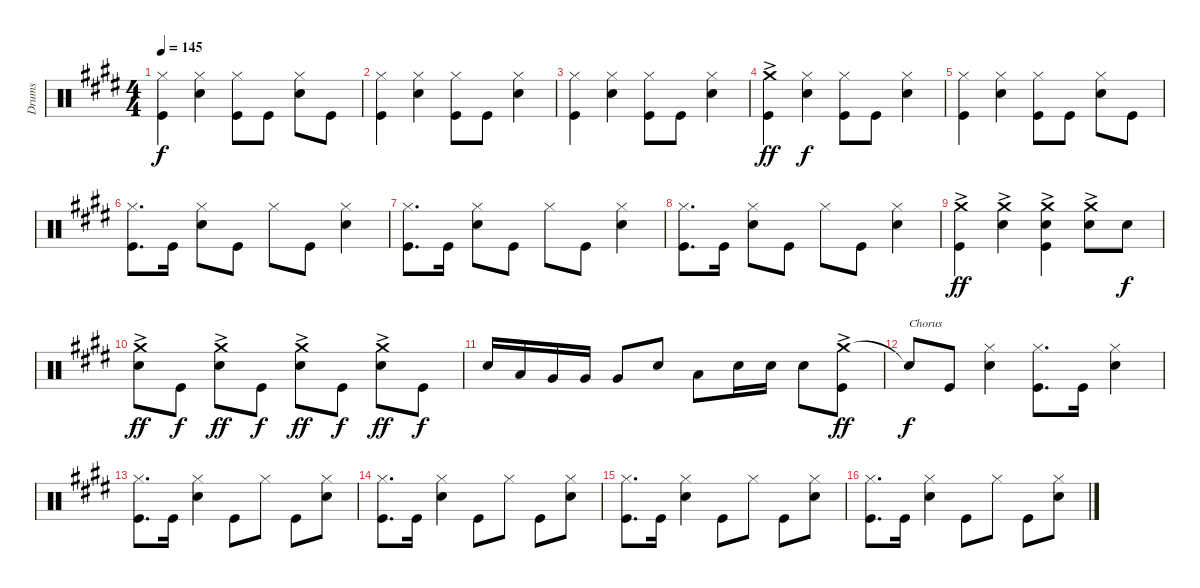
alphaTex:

\track ("Drums" "Drums") {instrument percussion}
\staff {score}
\articulation defaults
\ts (4 4)
\tempo 145
\clef neutral
\ks e
("Hi-Hat (closed)" "Kick (hit)").4{dy f} ("Hi-Hat (closed)" "Snare (hit) 2").4 ("Hi-Hat (closed)" "Kick (hit)").8 "Kick (hit)".8 ("Hi-Hat (closed)" "Snare (hit) 2").8 "Kick (hit)".8 |
("Hi-Hat (closed)" "Kick (hit)").4 ("Hi-Hat (closed)" "Snare (hit) 2").4 ("Hi-Hat (closed)" "Kick (hit)").8 "Kick (hit)".8 ("Hi-Hat (closed)" "Snare (hit) 2").4 |
("Hi-Hat (closed)" "Kick (hit)").4 ("Hi-Hat (closed)" "Snare (hit) 2").4 ("Hi-Hat (closed)" "Kick (hit)").8 "Kick (hit)".8 ("Hi-Hat (closed)" "Snare (hit) 2").4 |
("Crash medium (hit)"{ac} "Kick (hit)").4{dy ff} ("Hi-Hat (closed)" "Snare (hit) 2").4{dy f} ("Hi-Hat (closed)" "Kick (hit)").8 "Kick (hit)".8 ("Hi-Hat (closed)" "Snare (hit) 2").4 |
("Hi-Hat (closed)" "Kick (hit)").4 ("Hi-Hat (closed)" "Snare (hit) 2").4 ("Hi-Hat (closed)" "Kick (hit)").8 "Kick (hit)".8 ("Hi-Hat (closed)" "Snare (hit) 2").8 "Kick (hit)".8 |
("Hi-Hat (closed)" "Kick (hit)").8{d} "Kick (hit)".16 ("Hi-Hat (closed)" "Snare (hit) 2").8 "Kick (hit)".8 "Hi-Hat (closed)".8 "Kick (hit)".8 ("Hi-Hat (closed)" "Snare (hit) 2").4 |
("Hi-Hat (closed)" "Kick (hit)").8{d} "Kick (hit)".16 ("Hi-Hat (closed)" "Snare (hit) 2").8 "Kick (hit)".8 "Hi-Hat (closed)".8 "Kick (hit)".8 ("Hi-Hat (closed)" "Snare (hit) 2").4 |
("Hi-Hat (closed)" "Kick (hit)").8{d} "Kick (hit)".16 ("Hi-Hat (closed)" "Snare (hit) 2").8 "Kick (hit)".8 "Hi-Hat (closed)".8 "Kick (hit)".8 ("Hi-Hat (closed)" "Snare (hit) 2").4 |
("Crash medium (hit)"{ac} "Kick (hit)").4{dy ff} ("Crash medium (hit)"{ac} "Snare (hit) 2").4 ("Crash medium (hit)"{ac} "Snare (hit) 2" "Kick (hit)").4 ("Crash medium (hit)"{ac} "Snare (hit) 2").8 "Snare (hit) 2".8{dy f} |
("Crash medium (hit)"{ac} "Snare (hit) 2").8{dy ff} "Kick (hit)".8{dy f} ("Crash medium (hit)"{ac} "Snare (hit) 2").8{dy ff} "Kick (hit)".8{dy f} ("Crash medium (hit)"{ac} "Snare (hit) 2").8{dy ff} "Kick (hit)".8{dy f} ("Crash medium (hit)"{ac} "Snare (hit) 2").8{dy ff} "Kick (hit)".8{dy f} |
"Snare (hit) 2".16 "Low Tom (hit)".16 "Very Low Tom (hit)".16 "Very Low Tom (hit)".16 "Very Low Tom (hit)".8 "Snare (hit) 2".8 "Low Tom (hit)".8 "Snare (hit) 2".16 "Snare (hit) 2".16 "Snare (hit) 2".8 ("Crash medium (hit)"{ac} "Kick (hit)").8{dy ff} |
"Snare (hit)"{t}.8{txt "Chorus" dy f} "Kick (hit)".8 ("Hi-Hat (closed)" "Snare (hit) 2").4 ("Hi-Hat (closed)" "Kick (hit)").8{d} "Kick (hit)".16 ("Hi-Hat (closed)" "Snare (hit) 2").4 |
("Hi-Hat (closed)" "Kick (hit)").8{d} "Kick (hit)".16 ("Hi-Hat (closed)" "Snare (hit) 2").4 "Kick (hit)".8 "Hi-Hat (closed)".8 "Kick (hit)".8 ("Hi-Hat (closed)" "Snare (hit) 2").8 |
("Hi-Hat (closed)" "Kick (hit)").8{d} "Kick (hit)".16 ("Hi-Hat (closed)" "Snare (hit) 2").4 "Kick (hit)".8 "Hi-Hat (closed)".8 "Kick (hit)".8 ("Hi-Hat (closed)" "Snare (hit) 2").8 |
("Hi-Hat (closed)" "Kick (hit)").8{d} "Kick (hit)".16 ("Hi-Hat (closed)" "Snare (hit) 2").4 "Kick (hit)".8 "Hi-Hat (closed)".8 "Kick (hit)".8 ("Hi-Hat (closed)" "Snare (hit) 2").8 |
("Hi-Hat (closed)" "Kick (hit)").8{d} "Kick (hit)".16 ("Hi-Hat (closed)" "Snare (hit) 2").4 "Kick (hit)".8 "Hi-Hat (closed)".8 "Kick (hit)".8 ("Hi-Hat (closed)" "Snare (hit) 2").8
